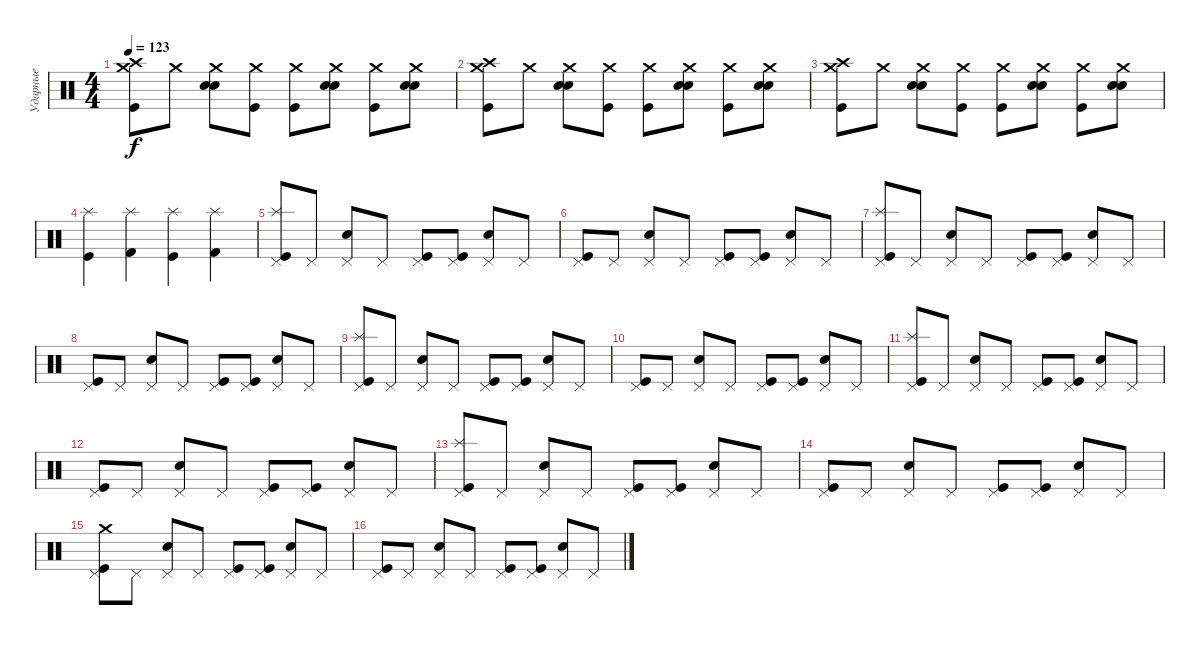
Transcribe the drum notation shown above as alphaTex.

\track ("Ударные" "Ударные") {instrument percussion}
\staff {score}
\articulation defaults
\ts (4 4)
\tempo 123
\clef neutral
\ks c
("Crash medium (hit)" "Crash high (hit)" "Kick (hit)").8{dy f} "Crash medium (hit)".8 ("Crash medium (hit)" "Snare (hit) 2" "Snare (hit) 2").8 ("Crash medium (hit)" "Kick (hit)").8 ("Crash medium (hit)" "Kick (hit)").8 ("Crash medium (hit)" "Snare (hit) 2" "Snare (hit) 2").8 ("Crash medium (hit)" "Kick (hit)").8 ("Crash medium (hit)" "Electric Snare (hit)" "Electric Snare (hit)").8 |
("Crash medium (hit)" "Crash high (hit)" "Kick (hit)").8 "Crash medium (hit)".8 ("Crash medium (hit)" "Snare (hit) 2" "Snare (hit) 2").8 ("Crash medium (hit)" "Kick (hit)").8 ("Crash medium (hit)" "Kick (hit)").8 ("Crash medium (hit)" "Snare (hit) 2" "Snare (hit) 2").8 ("Crash medium (hit)" "Kick (hit)").8 ("Crash medium (hit)" "Electric Snare (hit)" "Electric Snare (hit)").8 |
("Crash medium (hit)" "Crash high (hit)" "Kick (hit)").8 "Crash medium (hit)".8 ("Crash medium (hit)" "Snare (hit) 2" "Snare (hit) 2").8 ("Crash medium (hit)" "Kick (hit)").8 ("Crash medium (hit)" "Kick (hit)").8 ("Crash medium (hit)" "Snare (hit) 2" "Snare (hit) 2").8 ("Crash medium (hit)" "Kick (hit)").8 ("Crash medium (hit)" "Electric Snare (hit)" "Electric Snare (hit)").8 |
("Splash (hit)" "Kick (hit)").4 ("Splash (hit)" "Kick (hit) 2").4 ("Splash (hit)" "Kick (hit)").4 ("Splash (hit)" "Kick (hit) 2").4 |
("Splash (hit)" "Pedal Hi-Hat (hit)" "Kick (hit)").8 "Pedal Hi-Hat (hit)".8 ("Pedal Hi-Hat (hit)" "Snare (hit) 2").8 "Pedal Hi-Hat (hit)".8 ("Pedal Hi-Hat (hit)" "Kick (hit)").8 ("Pedal Hi-Hat (hit)" "Kick (hit)").8 ("Pedal Hi-Hat (hit)" "Snare (hit) 2").8 "Pedal Hi-Hat (hit)".8 |
("Pedal Hi-Hat (hit)" "Kick (hit)").8 "Pedal Hi-Hat (hit)".8 ("Pedal Hi-Hat (hit)" "Snare (hit) 2").8 "Pedal Hi-Hat (hit)".8 ("Pedal Hi-Hat (hit)" "Kick (hit)").8 ("Pedal Hi-Hat (hit)" "Kick (hit)").8 ("Pedal Hi-Hat (hit)" "Snare (hit) 2").8 "Pedal Hi-Hat (hit)".8 |
("Splash (hit)" "Pedal Hi-Hat (hit)" "Kick (hit)").8 "Pedal Hi-Hat (hit)".8 ("Pedal Hi-Hat (hit)" "Snare (hit) 2").8 "Pedal Hi-Hat (hit)".8 ("Pedal Hi-Hat (hit)" "Kick (hit)").8 ("Pedal Hi-Hat (hit)" "Kick (hit)").8 ("Pedal Hi-Hat (hit)" "Snare (hit) 2").8 "Pedal Hi-Hat (hit)".8 |
("Pedal Hi-Hat (hit)" "Kick (hit)").8 "Pedal Hi-Hat (hit)".8 ("Pedal Hi-Hat (hit)" "Snare (hit) 2").8 "Pedal Hi-Hat (hit)".8 ("Pedal Hi-Hat (hit)" "Kick (hit)").8 ("Pedal Hi-Hat (hit)" "Kick (hit)").8 ("Pedal Hi-Hat (hit)" "Snare (hit) 2").8 "Pedal Hi-Hat (hit)".8 |
("Splash (hit)" "Pedal Hi-Hat (hit)" "Kick (hit)").8 "Pedal Hi-Hat (hit)".8 ("Pedal Hi-Hat (hit)" "Snare (hit) 2").8 "Pedal Hi-Hat (hit)".8 ("Pedal Hi-Hat (hit)" "Kick (hit)").8 ("Pedal Hi-Hat (hit)" "Kick (hit)").8 ("Pedal Hi-Hat (hit)" "Snare (hit) 2").8 "Pedal Hi-Hat (hit)".8 |
("Pedal Hi-Hat (hit)" "Kick (hit)").8 "Pedal Hi-Hat (hit)".8 ("Pedal Hi-Hat (hit)" "Snare (hit) 2").8 "Pedal Hi-Hat (hit)".8 ("Pedal Hi-Hat (hit)" "Kick (hit)").8 ("Pedal Hi-Hat (hit)" "Kick (hit)").8 ("Pedal Hi-Hat (hit)" "Snare (hit) 2").8 "Pedal Hi-Hat (hit)".8 |
("Splash (hit)" "Pedal Hi-Hat (hit)" "Kick (hit)").8 "Pedal Hi-Hat (hit)".8 ("Pedal Hi-Hat (hit)" "Snare (hit) 2").8 "Pedal Hi-Hat (hit)".8 ("Pedal Hi-Hat (hit)" "Kick (hit)").8 ("Pedal Hi-Hat (hit)" "Kick (hit)").8 ("Pedal Hi-Hat (hit)" "Snare (hit) 2").8 "Pedal Hi-Hat (hit)".8 |
("Pedal Hi-Hat (hit)" "Kick (hit)").8 "Pedal Hi-Hat (hit)".8 ("Pedal Hi-Hat (hit)" "Snare (hit) 2").8 "Pedal Hi-Hat (hit)".8 ("Pedal Hi-Hat (hit)" "Kick (hit)").8 ("Pedal Hi-Hat (hit)" "Kick (hit)").8 ("Pedal Hi-Hat (hit)" "Snare (hit) 2").8 "Pedal Hi-Hat (hit)".8 |
("Splash (hit)" "Pedal Hi-Hat (hit)" "Kick (hit)").8 "Pedal Hi-Hat (hit)".8 ("Pedal Hi-Hat (hit)" "Snare (hit) 2").8 "Pedal Hi-Hat (hit)".8 ("Pedal Hi-Hat (hit)" "Kick (hit)").8 ("Pedal Hi-Hat (hit)" "Kick (hit)").8 ("Pedal Hi-Hat (hit)" "Snare (hit) 2").8 "Pedal Hi-Hat (hit)".8 |
("Pedal Hi-Hat (hit)" "Kick (hit)").8 "Pedal Hi-Hat (hit)".8 ("Pedal Hi-Hat (hit)" "Snare (hit) 2").8 "Pedal Hi-Hat (hit)".8 ("Pedal Hi-Hat (hit)" "Kick (hit)").8 ("Pedal Hi-Hat (hit)" "Kick (hit)").8 ("Pedal Hi-Hat (hit)" "Snare (hit) 2").8 "Pedal Hi-Hat (hit)".8 |
("Crash medium (hit)" "Pedal Hi-Hat (hit)" "Kick (hit)").8 "Pedal Hi-Hat (hit)".8 ("Pedal Hi-Hat (hit)" "Snare (hit) 2").8 "Pedal Hi-Hat (hit)".8 ("Pedal Hi-Hat (hit)" "Kick (hit)").8 ("Pedal Hi-Hat (hit)" "Kick (hit)").8 ("Pedal Hi-Hat (hit)" "Snare (hit) 2").8 "Pedal Hi-Hat (hit)".8 |
("Pedal Hi-Hat (hit)" "Kick (hit)").8 "Pedal Hi-Hat (hit)".8 ("Pedal Hi-Hat (hit)" "Snare (hit) 2").8 "Pedal Hi-Hat (hit)".8 ("Pedal Hi-Hat (hit)" "Kick (hit)").8 ("Pedal Hi-Hat (hit)" "Kick (hit)").8 ("Pedal Hi-Hat (hit)" "Snare (hit) 2").8 "Pedal Hi-Hat (hit)".8
